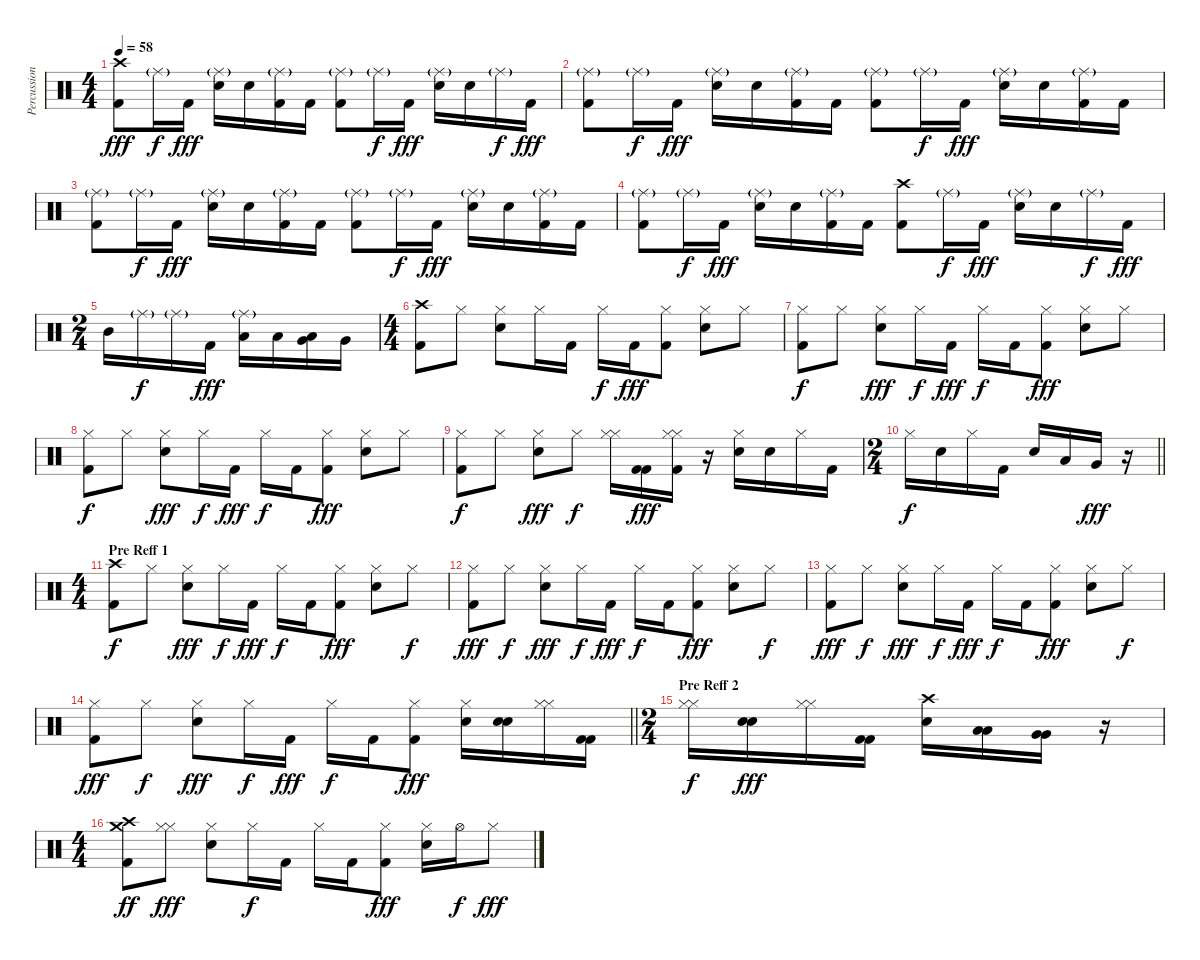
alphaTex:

\track ("Percussion" "Percussion") {instrument percussion}
\staff {score}
\articulation defaults
\ts (4 4)
\tempo 58
\clef neutral
\ks c
("Crash high (hit)" "Kick (hit) 2").8{dy fff} "Ride (middle)"{g}.16{dy f} "Kick (hit) 2".16{dy fff} ("Electric Snare (hit)" "Ride (middle)"{g}).16 "Electric Snare (hit)".16 ("Kick (hit) 2" "Ride (middle)"{g}).16 "Kick (hit) 2".16 ("Kick (hit) 2" "Ride (middle)"{g}).8 "Ride (middle)"{g}.16{dy f} "Kick (hit) 2".16{dy fff} ("Electric Snare (hit)" "Ride (middle)"{g}).16 "Electric Snare (hit)".16 "Ride (middle)"{g}.16{dy f} "Kick (hit) 2".16{dy fff} |
("Ride (middle)"{g} "Kick (hit) 2").8 "Ride (middle)"{g}.16{dy f} "Kick (hit) 2".16{dy fff} ("Ride (middle)"{g} "Electric Snare (hit)").16 "Electric Snare (hit)".16 ("Kick (hit) 2" "Ride (middle)"{g}).16 "Kick (hit) 2".16 ("Ride (middle)"{g} "Kick (hit) 2").8 "Ride (middle)"{g}.16{dy f} "Kick (hit) 2".16{dy fff} ("Ride (middle)"{g} "Electric Snare (hit)").16 "Electric Snare (hit)".16 ("Kick (hit) 2" "Ride (middle)"{g}).16 "Kick (hit) 2".16 |
("Ride (middle)"{g} "Kick (hit) 2").8 "Ride (middle)"{g}.16{dy f} "Kick (hit) 2".16{dy fff} ("Ride (middle)"{g} "Electric Snare (hit)").16 "Electric Snare (hit)".16 ("Kick (hit) 2" "Ride (middle)"{g}).16 "Kick (hit) 2".16 ("Ride (middle)"{g} "Kick (hit) 2").8 "Ride (middle)"{g}.16{dy f} "Kick (hit) 2".16{dy fff} ("Ride (middle)"{g} "Electric Snare (hit)").16 "Electric Snare (hit)".16 ("Kick (hit) 2" "Ride (middle)"{g}).16 "Kick (hit) 2".16 |
("Ride (middle)"{g} "Kick (hit) 2").8 "Ride (middle)"{g}.16{dy f} "Kick (hit) 2".16{dy fff} ("Ride (middle)"{g} "Electric Snare (hit)").16 "Electric Snare (hit)".16 ("Kick (hit) 2" "Ride (middle)"{g}).16 "Kick (hit) 2".16 ("Kick (hit) 2" "Crash high (hit)").8 "Ride (middle)"{g}.16{dy f} "Kick (hit) 2".16{dy fff} ("Electric Snare (hit)" "Ride (middle)"{g}).16 "Electric Snare (hit)".16 "Ride (middle)"{g}.16{dy f} "Kick (hit) 2".16{dy fff} |
\ts (2 4)
"Mid Tom (hit)".16 "Ride (middle)"{g}.16{dy f} "Ride (middle)"{g}.16 "Kick (hit) 2".16{dy fff} ("Ride (middle)"{g} "Low Tom (hit)").16 "Low Tom (hit)".16 ("Low Tom (hit)" "Very Low Tom (hit)").16 "Very Low Tom (hit)".16 |
\ts (4 4)
("Crash high (hit)" "Kick (hit) 2").8 "Hi-Hat (closed)".8 ("Electric Snare (hit)" "Hi-Hat (closed)").8 "Hi-Hat (closed)".16 "Kick (hit) 2".16 "Hi-Hat (closed)".16{dy f} "Kick (hit) 2".16{dy fff} ("Hi-Hat (closed)" "Kick (hit) 2").8 ("Electric Snare (hit)" "Hi-Hat (closed)").8 "Hi-Hat (closed)".8 |
("Hi-Hat (closed)" "Kick (hit) 2").8{dy f} "Hi-Hat (closed)".8 ("Hi-Hat (closed)" "Electric Snare (hit)").8{dy fff} "Hi-Hat (closed)".16{dy f} "Kick (hit) 2".16{dy fff} "Hi-Hat (closed)".16{dy f} "Kick (hit) 2".16 ("Kick (hit) 2" "Hi-Hat (closed)").8{dy fff} ("Electric Snare (hit)" "Hi-Hat (closed)").8 "Hi-Hat (closed)".8 |
("Hi-Hat (closed)" "Kick (hit) 2").8{dy f} "Hi-Hat (closed)".8 ("Hi-Hat (closed)" "Electric Snare (hit)").8{dy fff} "Hi-Hat (closed)".16{dy f} "Kick (hit) 2".16{dy fff} "Hi-Hat (closed)".16{dy f} "Kick (hit) 2".16 ("Kick (hit) 2" "Hi-Hat (closed)").8{dy fff} ("Electric Snare (hit)" "Hi-Hat (closed)").8 "Hi-Hat (closed)".8 |
("Hi-Hat (closed)" "Kick (hit) 2").8{dy f} "Hi-Hat (closed)".8 ("Hi-Hat (closed)" "Electric Snare (hit)").8{dy fff} "Hi-Hat (closed)".8{dy f} ("Hi-Hat (closed)" "Hi-Hat (closed)").16 ("Kick (hit) 2" "Kick (hit) 2").16{dy fff} ("Hi-Hat (closed)" "Kick (hit) 2" "Hi-Hat (closed)").16 r.16 ("Electric Snare (hit)" "Hi-Hat (closed)").16 "Electric Snare (hit)".16 "Hi-Hat (closed)".16 "Kick (hit) 2".16 |
\ts (2 4)
\barLineRight lightlight "Hi-Hat (closed)".16{dy f} "Electric Snare (hit)".16 "Hi-Hat (closed)".16 "Kick (hit) 2".16 "Electric Snare (hit)".16 "Low Tom (hit)".16 "Very Low Tom (hit)".16{dy fff}
r.16 |
\ts (4 4)
\section ("" "Pre Reff 1")
("Kick (hit) 2" "Crash high (hit)").8{dy f} "Hi-Hat (closed)".8 ("Hi-Hat (closed)" "Electric Snare (hit)").8{dy fff} "Hi-Hat (closed)".16{dy f} "Kick (hit) 2".16{dy fff} "Hi-Hat (closed)".16{dy f} "Kick (hit) 2".16 ("Kick (hit) 2" "Hi-Hat (closed)").8{dy fff} ("Hi-Hat (closed)" "Electric Snare (hit)").8 "Hi-Hat (closed)".8{dy f} |
("Kick (hit) 2" "Hi-Hat (closed)").8{dy fff} "Hi-Hat (closed)".8{dy f} ("Hi-Hat (closed)" "Electric Snare (hit)").8{dy fff} "Hi-Hat (closed)".16{dy f} "Kick (hit) 2".16{dy fff} "Hi-Hat (closed)".16{dy f} "Kick (hit) 2".16 ("Kick (hit) 2" "Hi-Hat (closed)").8{dy fff} ("Hi-Hat (closed)" "Electric Snare (hit)").8 "Hi-Hat (closed)".8{dy f} |
("Kick (hit) 2" "Hi-Hat (closed)").8{dy fff} "Hi-Hat (closed)".8{dy f} ("Hi-Hat (closed)" "Electric Snare (hit)").8{dy fff} "Hi-Hat (closed)".16{dy f} "Kick (hit) 2".16{dy fff} "Hi-Hat (closed)".16{dy f} "Kick (hit) 2".16 ("Kick (hit) 2" "Hi-Hat (closed)").8{dy fff} ("Hi-Hat (closed)" "Electric Snare (hit)").8 "Hi-Hat (closed)".8{dy f} |
\barLineRight lightlight
("Kick (hit) 2" "Hi-Hat (closed)").8{dy fff} "Hi-Hat (closed)".8{dy f} ("Hi-Hat (closed)" "Electric Snare (hit)").8{dy fff} "Hi-Hat (closed)".16{dy f} "Kick (hit) 2".16{dy fff} "Hi-Hat (closed)".16{dy f} "Kick (hit) 2".16 ("Kick (hit) 2" "Hi-Hat (closed)").8{dy fff} ("Hi-Hat (closed)" "Electric Snare (hit)").16 ("Electric Snare (hit)" "Electric Snare (hit)").16 ("Hi-Hat (closed)" "Hi-Hat (closed)").16 ("Kick (hit) 2" "Kick (hit) 2").16 |
\ts (2 4)
\section ("" "Pre Reff 2")
("Hi-Hat (closed)" "Hi-Hat (closed)").16{dy f} ("Electric Snare (hit)" "Electric Snare (hit)").16{dy fff} ("Hi-Hat (closed)" "Hi-Hat (closed)").16 ("Kick (hit) 2" "Kick (hit) 2").16 ("Electric Snare (hit)" "Crash high (hit)").16 ("Low Tom (hit)" "Low Tom (hit)").16 ("Very Low Tom (hit)" "Very Low Tom (hit)").16 r.16 |
\ts (4 4)
("Kick (hit) 2" "Crash high (hit)" "Crash medium (hit)").8{dy ff} ("Hi-Hat (closed)" "Hi-Hat (closed)").8{dy fff} ("Hi-Hat (closed)" "Electric Snare (hit)").8 "Hi-Hat (closed)".16{dy f} "Kick (hit) 2".16 "Hi-Hat (closed)".16 "Kick (hit) 2".16 ("Kick (hit) 2" "Hi-Hat (closed)").8{dy fff} ("Hi-Hat (closed)" "Electric Snare (hit)").16 "Hi-Hat (open)".16{dy f} "Hi-Hat (closed)".8{dy fff}
